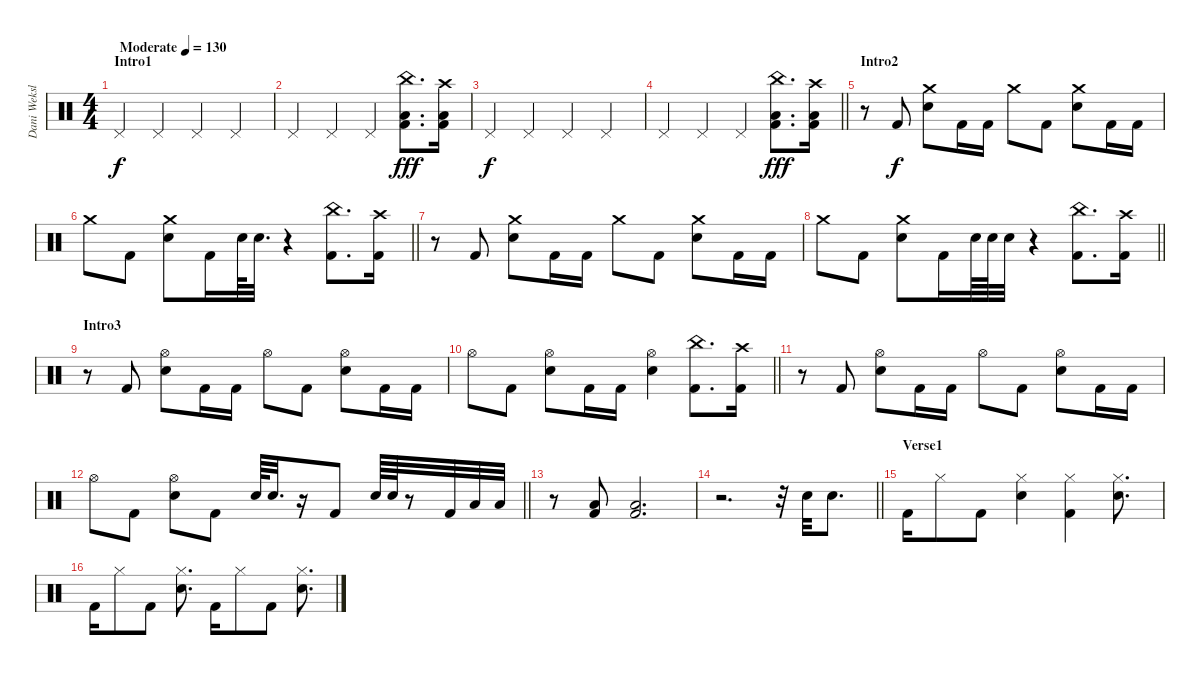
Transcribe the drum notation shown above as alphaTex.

\track ("Dani Weksler(Bateria)" "Dani Weksl") {instrument percussion}
\staff {score}
\articulation defaults
\ts (4 4)
\section ("" "Intro1")
\tempo (130 "Moderate")
\clef neutral
\ks c "Pedal Hi-Hat (hit)".4{dy f} "Pedal Hi-Hat (hit)".4 "Pedal Hi-Hat (hit)".4 "Pedal Hi-Hat (hit)".4
|
"Pedal Hi-Hat (hit)".4 "Pedal Hi-Hat (hit)".4 "Pedal Hi-Hat (hit)".4 ("China (hit)" "Low Floor Tom (hit)" "Kick (hit) 2").8{d dy fff} ("Crash high (hit)" "Low Floor Tom (hit)" "Kick (hit) 2").16 |
"Pedal Hi-Hat (hit)".4{dy f} "Pedal Hi-Hat (hit)".4 "Pedal Hi-Hat (hit)".4 "Pedal Hi-Hat (hit)".4 |
\barLineRight lightlight "Pedal Hi-Hat (hit)".4 "Pedal Hi-Hat (hit)".4 "Pedal Hi-Hat (hit)".4
("China (hit)" "Low Floor Tom (hit)" "Kick (hit) 2").8{d dy fff} ("Crash high (hit)" "Low Floor Tom (hit)" "Kick (hit) 2").16 |
\section ("" "Intro2")
r.8 "Kick (hit) 2".8{dy f} ("Crash medium (hit)" "Electric Snare (hit)").8 "Kick (hit) 2".16 "Kick (hit) 2".16 "Crash medium (hit)".8 "Kick (hit) 2".8 ("Crash medium (hit)" "Electric Snare (hit)").8 "Kick (hit) 2".16 "Kick (hit) 2".16 |
\barLineRight lightlight "Crash medium (hit)".8 "Kick (hit) 2".8
("Crash medium (hit)" "Electric Snare (hit)").8 "Kick (hit) 2".16 "Electric Snare (hit)".64 "Electric Snare (hit)".32{d} r.4 ("China (hit)" "Kick (hit) 2").8{d} ("Crash high (hit)" "Kick (hit) 2").16 |
r.8 "Kick (hit) 2".8 ("Crash medium (hit)" "Electric Snare (hit)").8 "Kick (hit) 2".16 "Kick (hit) 2".16 "Crash medium (hit)".8 "Kick (hit) 2".8 ("Crash medium (hit)" "Electric Snare (hit)").8 "Kick (hit) 2".16 "Kick (hit) 2".16 |
\barLineRight lightlight "Crash medium (hit)".8 "Kick (hit) 2".8
("Crash medium (hit)" "Electric Snare (hit)").8 "Kick (hit) 2".16 "Electric Snare (hit)".64 "Electric Snare (hit)".64 "Electric Snare (hit)".32 r.4 ("China (hit)" "Kick (hit) 2").8{d} ("Crash high (hit)" "Kick (hit) 2").16 |
\section ("" "Intro3")
r.8 "Kick (hit) 2".8 ("Hi-Hat (open)" "Electric Snare (hit)").8 "Kick (hit) 2".16 "Kick (hit) 2".16 "Hi-Hat (open)".8 "Kick (hit) 2".8 ("Hi-Hat (open)" "Electric Snare (hit)").8 "Kick (hit) 2".16 "Kick (hit) 2".16 |
\barLineRight lightlight "Hi-Hat (open)".8 "Kick (hit) 2".8
("Hi-Hat (open)" "Electric Snare (hit)").8 "Kick (hit) 2".16 "Kick (hit) 2".16 ("Hi-Hat (open)" "Electric Snare (hit)").4 ("China (hit)" "Kick (hit) 2").8{d} ("Crash high (hit)" "Kick (hit) 2").16 |
r.8 "Kick (hit) 2".8 ("Hi-Hat (open)" "Electric Snare (hit)").8 "Kick (hit) 2".16 "Kick (hit) 2".16 "Hi-Hat (open)".8 "Kick (hit) 2".8 ("Hi-Hat (open)" "Electric Snare (hit)").8 "Kick (hit) 2".16 "Kick (hit) 2".16 |
\barLineRight lightlight "Hi-Hat (open)".8 "Kick (hit) 2".8
("Hi-Hat (open)" "Electric Snare (hit)").8 "Kick (hit) 2".8 "Electric Snare (hit)".64 "Electric Snare (hit)".32{d} r.16 "Kick (hit) 2".8 "Electric Snare (hit)".64 "Electric Snare (hit)".64 r.8 "Kick (hit) 2".32 "Low Floor Tom (hit)".32 "Low Floor Tom (hit)".32 |
r.8 ("Low Floor Tom (hit)" "Kick (hit) 2").8 ("Low Floor Tom (hit)" "Kick (hit) 2").2{d} |
\barLineRight lightlight
r.2{d} r.32 "Electric Snare (hit)".32 "Electric Snare (hit)".8{d} |
\section ("" "Verse1")
"Kick (hit) 2".16 "Hi-Hat (closed)".8 "Kick (hit) 2".8 ("Hi-Hat (closed)" "Electric Snare (hit)").4 ("Hi-Hat (closed)" "Kick (hit) 2").4 ("Hi-Hat (closed)" "Electric Snare (hit)").8{d} |
"Kick (hit) 2".16 "Hi-Hat (closed)".8 "Kick (hit) 2".8 ("Hi-Hat (closed)" "Electric Snare (hit)").8{d} "Kick (hit) 2".16 "Hi-Hat (closed)".8 "Kick (hit) 2".8 ("Hi-Hat (closed)" "Electric Snare (hit)").8{d}
